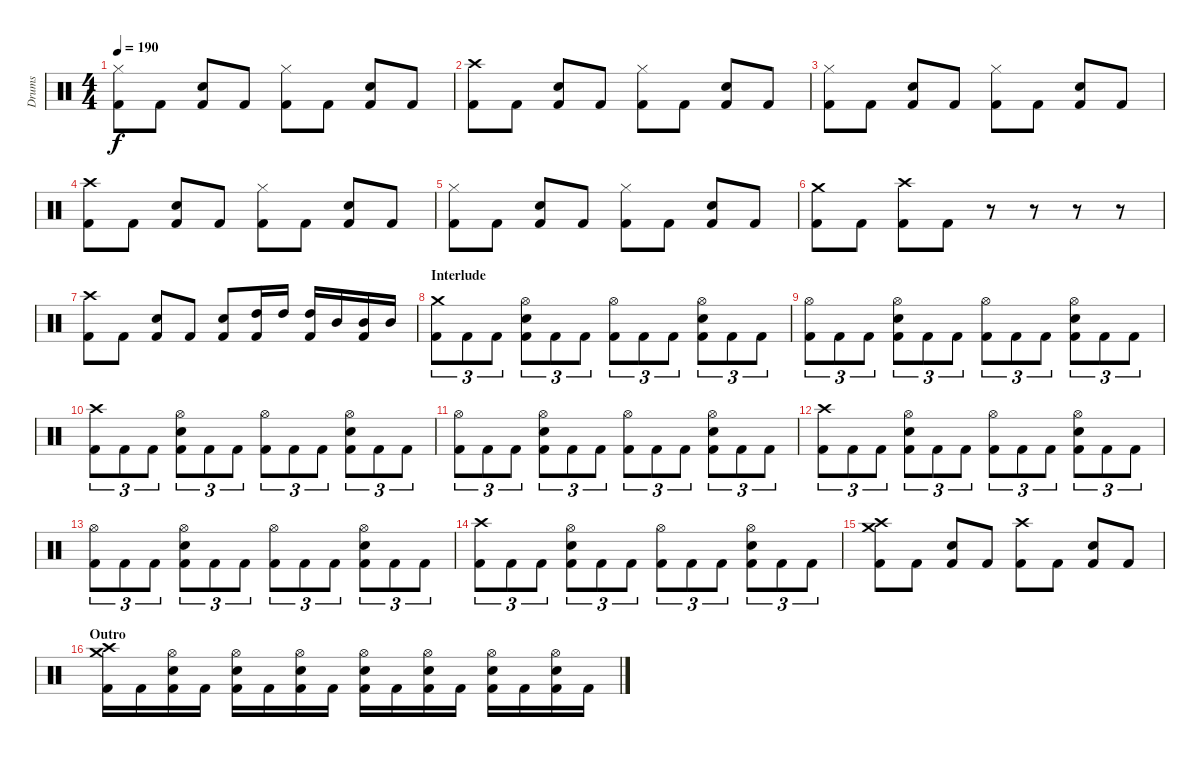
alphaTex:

\track ("Drums" "Drums") {instrument percussion}
\staff {score}
\articulation defaults
\ts (4 4)
\tempo 190
\clef neutral
\ks c
("Kick (hit) 2" "Hi-Hat (closed)").8{dy f} "Kick (hit) 2".8 ("Kick (hit) 2" "Electric Snare (hit)").8 "Kick (hit) 2".8 ("Kick (hit) 2" "Hi-Hat (closed)").8 "Kick (hit) 2".8 ("Kick (hit) 2" "Electric Snare (hit)").8 "Kick (hit) 2".8 |
("Kick (hit) 2" "Crash high (hit)").8 "Kick (hit) 2".8 ("Kick (hit) 2" "Electric Snare (hit)").8 "Kick (hit) 2".8 ("Kick (hit) 2" "Hi-Hat (closed)").8 "Kick (hit) 2".8 ("Kick (hit) 2" "Electric Snare (hit)").8 "Kick (hit) 2".8 |
("Kick (hit) 2" "Hi-Hat (closed)").8 "Kick (hit) 2".8 ("Kick (hit) 2" "Electric Snare (hit)").8 "Kick (hit) 2".8 ("Kick (hit) 2" "Hi-Hat (closed)").8 "Kick (hit) 2".8 ("Kick (hit) 2" "Electric Snare (hit)").8 "Kick (hit) 2".8 |
("Kick (hit) 2" "Crash high (hit)").8 "Kick (hit) 2".8 ("Kick (hit) 2" "Electric Snare (hit)").8 "Kick (hit) 2".8 ("Kick (hit) 2" "Hi-Hat (closed)").8 "Kick (hit) 2".8 ("Kick (hit) 2" "Electric Snare (hit)").8 "Kick (hit) 2".8 |
("Kick (hit) 2" "Hi-Hat (closed)").8 "Kick (hit) 2".8 ("Kick (hit) 2" "Electric Snare (hit)").8 "Kick (hit) 2".8 ("Kick (hit) 2" "Hi-Hat (closed)").8 "Kick (hit) 2".8 ("Kick (hit) 2" "Electric Snare (hit)").8 "Kick (hit) 2".8 |
("Kick (hit) 2" "Crash medium (hit)").8 "Kick (hit) 2".8 ("Kick (hit) 2" "Crash high (hit)").8 "Kick (hit) 2".8 r.8 r.8 r.8 r.8 |
("Kick (hit) 2" "Crash high (hit)").8 "Kick (hit) 2".8 ("Kick (hit) 2" "Electric Snare (hit)").8 "Kick (hit) 2".8 ("Kick (hit) 2" "Electric Snare (hit)").8 ("Kick (hit) 2" "High Tom (hit)").16 "High Tom (hit)".16 ("Kick (hit) 2" "High Tom (hit)").16 "Mid Tom (hit)".16 ("Kick (hit) 2" "Mid Tom (hit)").16 "Mid Tom (hit)".16 |
\section ("" "Interlude")
("Kick (hit) 2" "Crash medium (hit)").8{tu (3 2)} "Kick (hit) 2".8{tu (3 2)} "Kick (hit) 2".8{tu (3 2)} ("Kick (hit) 2" "Electric Snare (hit)" "Hi-Hat (open)").8{tu (3 2)} "Kick (hit) 2".8{tu (3 2)} "Kick (hit) 2".8{tu (3 2)} ("Kick (hit) 2" "Hi-Hat (open)").8{tu (3 2)} "Kick (hit) 2".8{tu (3 2)} "Kick (hit) 2".8{tu (3 2)} ("Kick (hit) 2" "Electric Snare (hit)" "Hi-Hat (open)").8{tu (3 2)} "Kick (hit) 2".8{tu (3 2)} "Kick (hit) 2".8{tu (3 2)} |
("Kick (hit) 2" "Hi-Hat (open)").8{tu (3 2)} "Kick (hit) 2".8{tu (3 2)} "Kick (hit) 2".8{tu (3 2)} ("Kick (hit) 2" "Electric Snare (hit)" "Hi-Hat (open)").8{tu (3 2)} "Kick (hit) 2".8{tu (3 2)} "Kick (hit) 2".8{tu (3 2)} ("Kick (hit) 2" "Hi-Hat (open)").8{tu (3 2)} "Kick (hit) 2".8{tu (3 2)} "Kick (hit) 2".8{tu (3 2)} ("Kick (hit) 2" "Electric Snare (hit)" "Hi-Hat (open)").8{tu (3 2)} "Kick (hit) 2".8{tu (3 2)} "Kick (hit) 2".8{tu (3 2)} |
("Kick (hit) 2" "Crash high (hit)").8{tu (3 2)} "Kick (hit) 2".8{tu (3 2)} "Kick (hit) 2".8{tu (3 2)} ("Kick (hit) 2" "Electric Snare (hit)" "Hi-Hat (open)").8{tu (3 2)} "Kick (hit) 2".8{tu (3 2)} "Kick (hit) 2".8{tu (3 2)} ("Kick (hit) 2" "Hi-Hat (open)").8{tu (3 2)} "Kick (hit) 2".8{tu (3 2)} "Kick (hit) 2".8{tu (3 2)} ("Kick (hit) 2" "Electric Snare (hit)" "Hi-Hat (open)").8{tu (3 2)} "Kick (hit) 2".8{tu (3 2)} "Kick (hit) 2".8{tu (3 2)} |
("Kick (hit) 2" "Hi-Hat (open)").8{tu (3 2)} "Kick (hit) 2".8{tu (3 2)} "Kick (hit) 2".8{tu (3 2)} ("Kick (hit) 2" "Electric Snare (hit)" "Hi-Hat (open)").8{tu (3 2)} "Kick (hit) 2".8{tu (3 2)} "Kick (hit) 2".8{tu (3 2)} ("Kick (hit) 2" "Hi-Hat (open)").8{tu (3 2)} "Kick (hit) 2".8{tu (3 2)} "Kick (hit) 2".8{tu (3 2)} ("Kick (hit) 2" "Electric Snare (hit)" "Hi-Hat (open)").8{tu (3 2)} "Kick (hit) 2".8{tu (3 2)} "Kick (hit) 2".8{tu (3 2)} |
("Kick (hit) 2" "Crash high (hit)").8{tu (3 2)} "Kick (hit) 2".8{tu (3 2)} "Kick (hit) 2".8{tu (3 2)} ("Kick (hit) 2" "Electric Snare (hit)" "Hi-Hat (open)").8{tu (3 2)} "Kick (hit) 2".8{tu (3 2)} "Kick (hit) 2".8{tu (3 2)} ("Kick (hit) 2" "Hi-Hat (open)").8{tu (3 2)} "Kick (hit) 2".8{tu (3 2)} "Kick (hit) 2".8{tu (3 2)} ("Kick (hit) 2" "Electric Snare (hit)" "Hi-Hat (open)").8{tu (3 2)} "Kick (hit) 2".8{tu (3 2)} "Kick (hit) 2".8{tu (3 2)} |
("Kick (hit) 2" "Hi-Hat (open)").8{tu (3 2)} "Kick (hit) 2".8{tu (3 2)} "Kick (hit) 2".8{tu (3 2)} ("Kick (hit) 2" "Electric Snare (hit)" "Hi-Hat (open)").8{tu (3 2)} "Kick (hit) 2".8{tu (3 2)} "Kick (hit) 2".8{tu (3 2)} ("Kick (hit) 2" "Hi-Hat (open)").8{tu (3 2)} "Kick (hit) 2".8{tu (3 2)} "Kick (hit) 2".8{tu (3 2)} ("Kick (hit) 2" "Electric Snare (hit)" "Hi-Hat (open)").8{tu (3 2)} "Kick (hit) 2".8{tu (3 2)} "Kick (hit) 2".8{tu (3 2)} |
("Kick (hit) 2" "Crash high (hit)").8{tu (3 2)} "Kick (hit) 2".8{tu (3 2)} "Kick (hit) 2".8{tu (3 2)} ("Kick (hit) 2" "Electric Snare (hit)" "Hi-Hat (open)").8{tu (3 2)} "Kick (hit) 2".8{tu (3 2)} "Kick (hit) 2".8{tu (3 2)} ("Kick (hit) 2" "Hi-Hat (open)").8{tu (3 2)} "Kick (hit) 2".8{tu (3 2)} "Kick (hit) 2".8{tu (3 2)} ("Kick (hit) 2" "Electric Snare (hit)" "Hi-Hat (open)").8{tu (3 2)} "Kick (hit) 2".8{tu (3 2)} "Kick (hit) 2".8{tu (3 2)} |
("Kick (hit) 2" "Crash high (hit)" "Crash medium (hit)").8 "Kick (hit) 2".8 ("Kick (hit) 2" "Electric Snare (hit)").8 "Kick (hit) 2".8 ("Kick (hit) 2" "Crash high (hit)").8 "Kick (hit) 2".8 ("Kick (hit) 2" "Electric Snare (hit)").8 "Kick (hit) 2".8 |
\section ("" "Outro")
("Kick (hit) 2" "Crash high (hit)" "Crash medium (hit)").16 "Kick (hit) 2".16 ("Kick (hit) 2" "Electric Snare (hit)" "Hi-Hat (open)").16 "Kick (hit) 2".16 ("Kick (hit) 2" "Electric Snare (hit)" "Hi-Hat (open)").16 "Kick (hit) 2".16 ("Kick (hit) 2" "Electric Snare (hit)" "Hi-Hat (open)").16 "Kick (hit) 2".16 ("Kick (hit) 2" "Electric Snare (hit)" "Hi-Hat (open)").16 "Kick (hit) 2".16 ("Kick (hit) 2" "Electric Snare (hit)" "Hi-Hat (open)").16 "Kick (hit) 2".16 ("Kick (hit) 2" "Electric Snare (hit)" "Hi-Hat (open)").16 "Kick (hit) 2".16 ("Kick (hit) 2" "Electric Snare (hit)" "Hi-Hat (open)").16 "Kick (hit) 2".16
